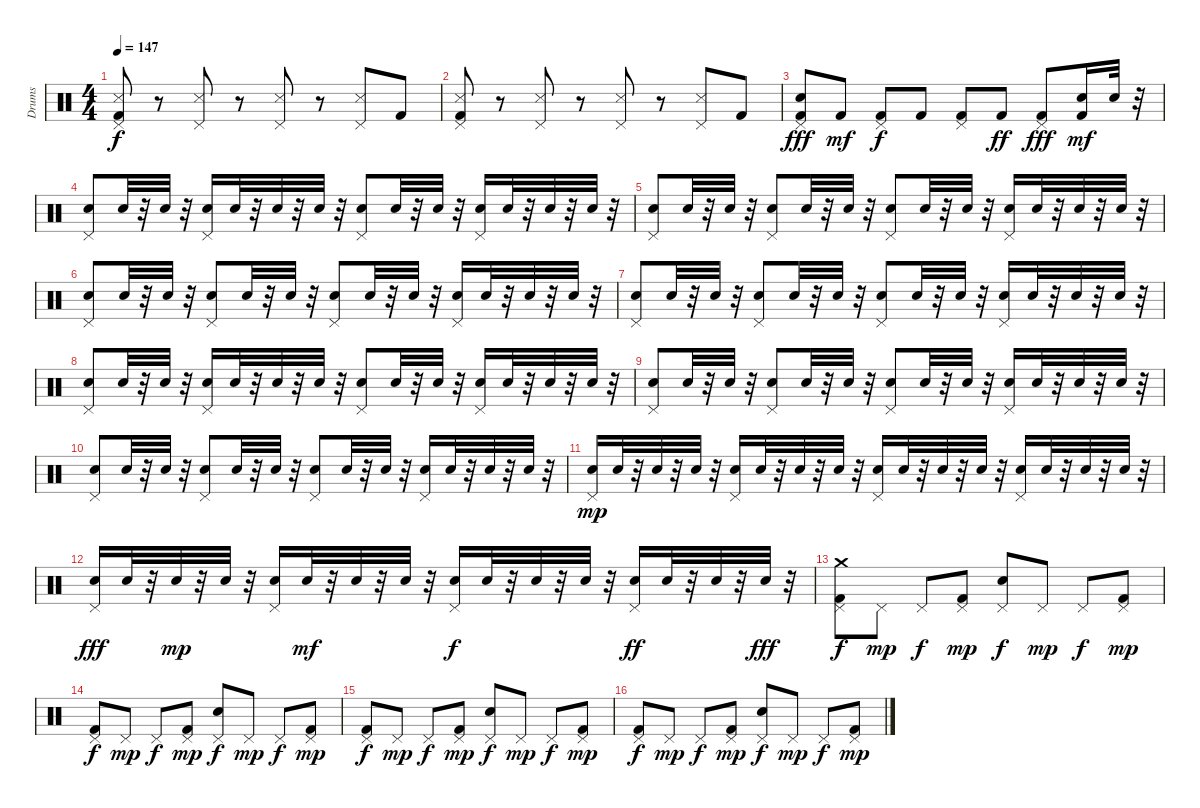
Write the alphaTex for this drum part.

\track ("Drums" "Drums") {instrument percussion}
\staff {score}
\articulation defaults
\ts (4 4)
\tempo 147
\clef neutral
\ks c
("Pedal Hi-Hat (hit)" "Kick (hit) 2" "Snare (side stick) 3").8{dy f} r.8 ("Pedal Hi-Hat (hit)" "Snare (side stick) 3").8 r.8 ("Pedal Hi-Hat (hit)" "Snare (side stick) 3").8 r.8 ("Pedal Hi-Hat (hit)" "Snare (side stick) 3").8 "Kick (hit) 2".8 |
("Pedal Hi-Hat (hit)" "Kick (hit) 2" "Snare (side stick) 3").8 r.8 ("Pedal Hi-Hat (hit)" "Snare (side stick) 3").8 r.8 ("Pedal Hi-Hat (hit)" "Snare (side stick) 3").8 r.8 ("Pedal Hi-Hat (hit)" "Snare (side stick) 3").8 "Kick (hit) 2".8 |
("Pedal Hi-Hat (hit)" "Kick (hit) 2" "Snare (hit) 2").8{dy fff} "Kick (hit) 2".8{dy mf} ("Pedal Hi-Hat (hit)" "Kick (hit) 2").8{dy f} "Kick (hit) 2".8 ("Pedal Hi-Hat (hit)" "Kick (hit) 2").8 "Kick (hit) 2".8{dy ff} ("Pedal Hi-Hat (hit)" "Kick (hit) 2").8{dy fff} ("Kick (hit) 2" "Snare (hit) 2").16{dy mf} "Snare (hit) 2".32 r.32 |
("Pedal Hi-Hat (hit)" "Snare (hit) 2").8 "Snare (hit) 2".32 r.32 "Snare (hit) 2".32 r.32 ("Pedal Hi-Hat (hit)" "Snare (hit) 2").16 "Snare (hit) 2".32 r.32 "Snare (hit) 2".32 r.32 "Snare (hit) 2".32 r.32 ("Pedal Hi-Hat (hit)" "Snare (hit) 2").8 "Snare (hit) 2".32 r.32 "Snare (hit) 2".32 r.32 ("Pedal Hi-Hat (hit)" "Snare (hit) 2").16 "Snare (hit) 2".32 r.32 "Snare (hit) 2".32 r.32 "Snare (hit) 2".32 r.32 |
("Pedal Hi-Hat (hit)" "Snare (hit) 2").8 "Snare (hit) 2".32 r.32 "Snare (hit) 2".32 r.32 ("Pedal Hi-Hat (hit)" "Snare (hit) 2").8 "Snare (hit) 2".32 r.32 "Snare (hit) 2".32 r.32 ("Pedal Hi-Hat (hit)" "Snare (hit) 2").8 "Snare (hit) 2".32 r.32 "Snare (hit) 2".32 r.32 ("Pedal Hi-Hat (hit)" "Snare (hit) 2").16 "Snare (hit) 2".32 r.32 "Snare (hit) 2".32 r.32 "Snare (hit) 2".32 r.32 |
("Pedal Hi-Hat (hit)" "Snare (hit) 2").8 "Snare (hit) 2".32 r.32 "Snare (hit) 2".32 r.32 ("Pedal Hi-Hat (hit)" "Snare (hit) 2").8 "Snare (hit) 2".32 r.32 "Snare (hit) 2".32 r.32 ("Pedal Hi-Hat (hit)" "Snare (hit) 2").8 "Snare (hit) 2".32 r.32 "Snare (hit) 2".32 r.32 ("Pedal Hi-Hat (hit)" "Snare (hit) 2").16 "Snare (hit) 2".32 r.32 "Snare (hit) 2".32 r.32 "Snare (hit) 2".32 r.32 |
("Pedal Hi-Hat (hit)" "Snare (hit) 2").8 "Snare (hit) 2".32 r.32 "Snare (hit) 2".32 r.32 ("Pedal Hi-Hat (hit)" "Snare (hit) 2").8 "Snare (hit) 2".32 r.32 "Snare (hit) 2".32 r.32 ("Pedal Hi-Hat (hit)" "Snare (hit) 2").8 "Snare (hit) 2".32 r.32 "Snare (hit) 2".32 r.32 ("Pedal Hi-Hat (hit)" "Snare (hit) 2").16 "Snare (hit) 2".32 r.32 "Snare (hit) 2".32 r.32 "Snare (hit) 2".32 r.32 |
("Pedal Hi-Hat (hit)" "Snare (hit) 2").8 "Snare (hit) 2".32 r.32 "Snare (hit) 2".32 r.32 ("Pedal Hi-Hat (hit)" "Snare (hit) 2").16 "Snare (hit) 2".32 r.32 "Snare (hit) 2".32 r.32 "Snare (hit) 2".32 r.32 ("Pedal Hi-Hat (hit)" "Snare (hit) 2").8 "Snare (hit) 2".32 r.32 "Snare (hit) 2".32 r.32 ("Pedal Hi-Hat (hit)" "Snare (hit) 2").16 "Snare (hit) 2".32 r.32 "Snare (hit) 2".32 r.32 "Snare (hit) 2".32 r.32 |
("Pedal Hi-Hat (hit)" "Snare (hit) 2").8 "Snare (hit) 2".32 r.32 "Snare (hit) 2".32 r.32 ("Pedal Hi-Hat (hit)" "Snare (hit) 2").8 "Snare (hit) 2".32 r.32 "Snare (hit) 2".32 r.32 ("Pedal Hi-Hat (hit)" "Snare (hit) 2").8 "Snare (hit) 2".32 r.32 "Snare (hit) 2".32 r.32 ("Pedal Hi-Hat (hit)" "Snare (hit) 2").16 "Snare (hit) 2".32 r.32 "Snare (hit) 2".32 r.32 "Snare (hit) 2".32 r.32 |
("Pedal Hi-Hat (hit)" "Snare (hit) 2").8 "Snare (hit) 2".32 r.32 "Snare (hit) 2".32 r.32 ("Pedal Hi-Hat (hit)" "Snare (hit) 2").8 "Snare (hit) 2".32 r.32 "Snare (hit) 2".32 r.32 ("Pedal Hi-Hat (hit)" "Snare (hit) 2").8 "Snare (hit) 2".32 r.32 "Snare (hit) 2".32 r.32 ("Pedal Hi-Hat (hit)" "Snare (hit) 2").16 "Snare (hit) 2".32 r.32 "Snare (hit) 2".32 r.32 "Snare (hit) 2".32 r.32 |
("Pedal Hi-Hat (hit)" "Snare (hit) 2").16{dy mp} "Snare (hit) 2".32 r.32 "Snare (hit) 2".32 r.32 "Snare (hit) 2".32 r.32 ("Pedal Hi-Hat (hit)" "Snare (hit) 2").16 "Snare (hit) 2".32 r.32 "Snare (hit) 2".32 r.32 "Snare (hit) 2".32 r.32 ("Pedal Hi-Hat (hit)" "Snare (hit) 2").16 "Snare (hit) 2".32 r.32 "Snare (hit) 2".32 r.32 "Snare (hit) 2".32 r.32 ("Pedal Hi-Hat (hit)" "Snare (hit) 2").16 "Snare (hit) 2".32 r.32 "Snare (hit) 2".32 r.32 "Snare (hit) 2".32 r.32 |
("Pedal Hi-Hat (hit)" "Snare (hit) 2").16{dy fff} "Snare (hit) 2".32 r.32 "Snare (hit) 2".32{dy mp} r.32 "Snare (hit) 2".32 r.32 ("Pedal Hi-Hat (hit)" "Snare (hit) 2").16 "Snare (hit) 2".32{dy mf} r.32 "Snare (hit) 2".32 r.32 "Snare (hit) 2".32 r.32 ("Pedal Hi-Hat (hit)" "Snare (hit) 2").16{dy f} "Snare (hit) 2".32 r.32 "Snare (hit) 2".32 r.32 "Snare (hit) 2".32 r.32 ("Pedal Hi-Hat (hit)" "Snare (hit) 2").16{dy ff} "Snare (hit) 2".32 r.32 "Snare (hit) 2".32 r.32 "Snare (hit) 2".32{dy fff} r.32 |
("Pedal Hi-Hat (hit)" "Kick (hit) 2" "Crash medium (hit)").8{dy f} "Pedal Hi-Hat (hit)".8{dy mp} "Pedal Hi-Hat (hit)".8{dy f} ("Pedal Hi-Hat (hit)" "Kick (hit) 2").8{dy mp} ("Pedal Hi-Hat (hit)" "Snare (hit) 2").8{dy f} "Pedal Hi-Hat (hit)".8{dy mp} "Pedal Hi-Hat (hit)".8{dy f} ("Pedal Hi-Hat (hit)" "Kick (hit) 2").8{dy mp} |
("Pedal Hi-Hat (hit)" "Kick (hit) 2").8{dy f} "Pedal Hi-Hat (hit)".8{dy mp} "Pedal Hi-Hat (hit)".8{dy f} ("Pedal Hi-Hat (hit)" "Kick (hit) 2").8{dy mp} ("Pedal Hi-Hat (hit)" "Snare (hit) 2").8{dy f} "Pedal Hi-Hat (hit)".8{dy mp} "Pedal Hi-Hat (hit)".8{dy f} ("Pedal Hi-Hat (hit)" "Kick (hit) 2").8{dy mp} |
("Pedal Hi-Hat (hit)" "Kick (hit) 2").8{dy f} "Pedal Hi-Hat (hit)".8{dy mp} "Pedal Hi-Hat (hit)".8{dy f} ("Pedal Hi-Hat (hit)" "Kick (hit) 2").8{dy mp} ("Pedal Hi-Hat (hit)" "Snare (hit) 2").8{dy f} "Pedal Hi-Hat (hit)".8{dy mp} "Pedal Hi-Hat (hit)".8{dy f} ("Pedal Hi-Hat (hit)" "Kick (hit) 2").8{dy mp} |
("Pedal Hi-Hat (hit)" "Kick (hit) 2").8{dy f} "Pedal Hi-Hat (hit)".8{dy mp} "Pedal Hi-Hat (hit)".8{dy f} ("Pedal Hi-Hat (hit)" "Kick (hit) 2").8{dy mp} ("Pedal Hi-Hat (hit)" "Snare (hit) 2").8{dy f} "Pedal Hi-Hat (hit)".8{dy mp} "Pedal Hi-Hat (hit)".8{dy f} ("Pedal Hi-Hat (hit)" "Kick (hit) 2").8{dy mp}
